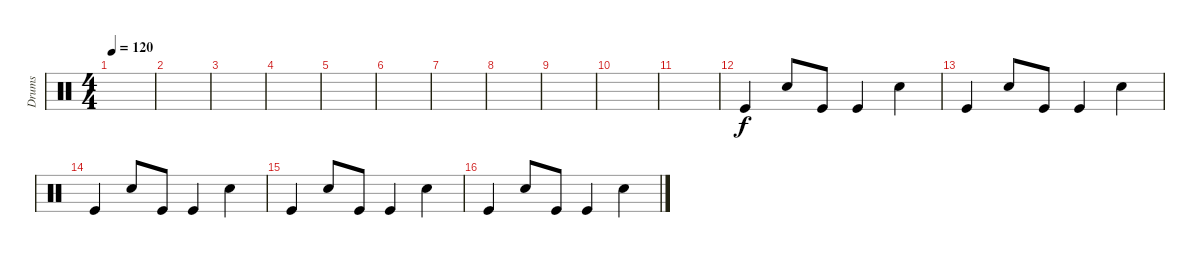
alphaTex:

\track ("Drums" "Drums") {instrument percussion}
\staff {score}
\articulation defaults
\ts (4 4)
\tempo 120
\tempo 130
\tempo 120
\clef neutral
\ks c
|
|
|
|
|
|
|
|
|
|
|
"Kick (hit)".4 "Snare (hit) 2".8 "Kick (hit)".8 "Kick (hit)".4 "Snare (hit) 2".4 |
"Kick (hit)".4 "Snare (hit) 2".8 "Kick (hit)".8 "Kick (hit)".4 "Snare (hit) 2".4 |
"Kick (hit)".4 "Snare (hit) 2".8 "Kick (hit)".8 "Kick (hit)".4 "Snare (hit) 2".4 |
"Kick (hit)".4 "Snare (hit) 2".8 "Kick (hit)".8 "Kick (hit)".4 "Snare (hit) 2".4 |
"Kick (hit)".4 "Snare (hit) 2".8 "Kick (hit)".8 "Kick (hit)".4 "Snare (hit) 2".4
